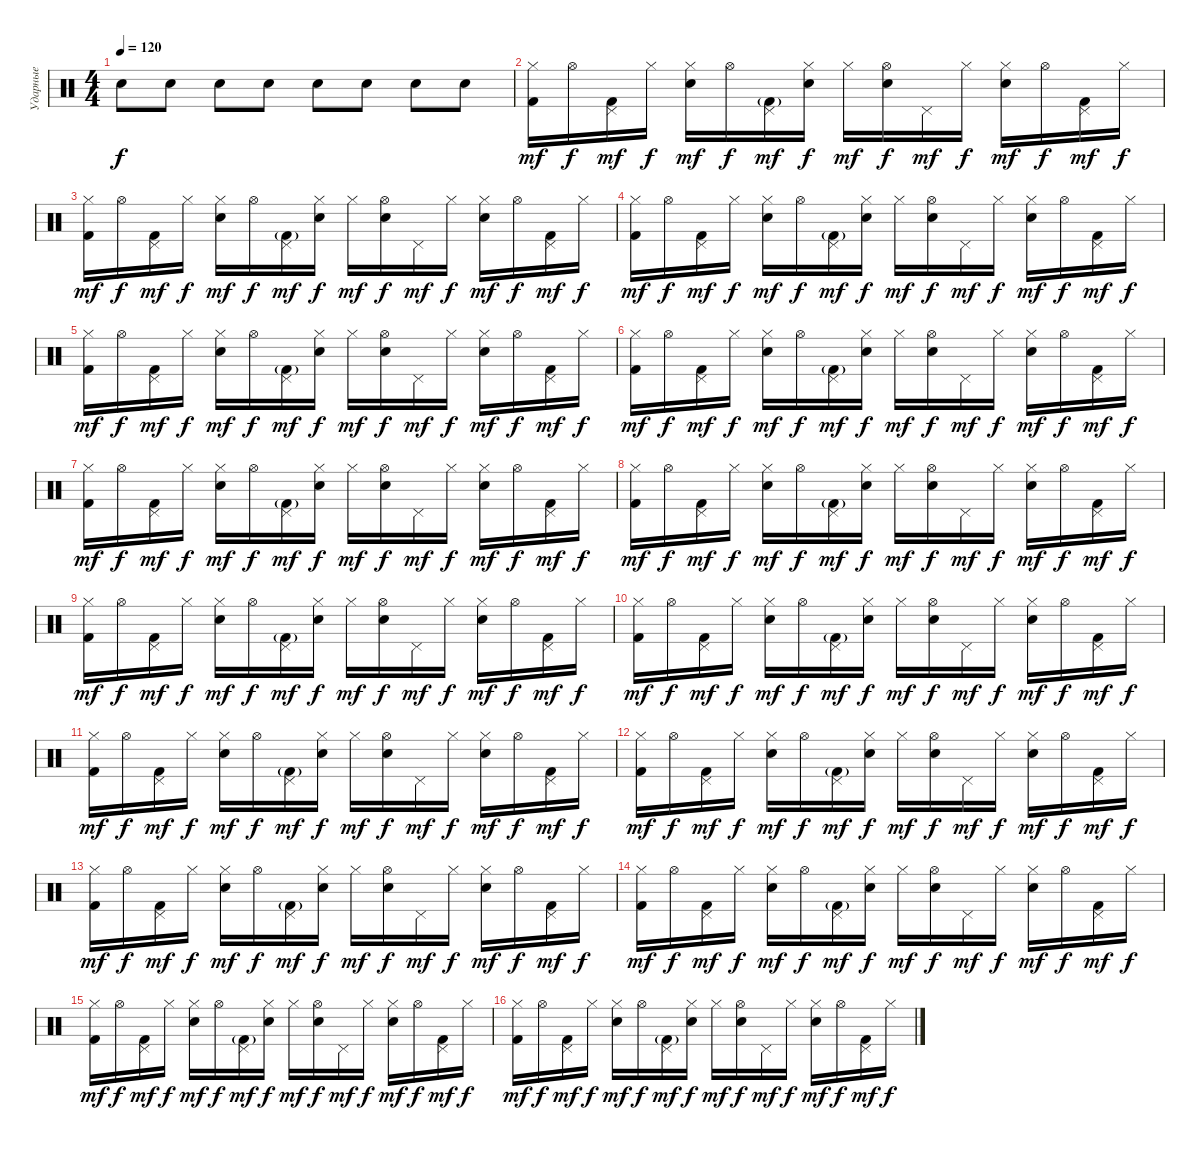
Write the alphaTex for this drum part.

\track ("Ударные" "Ударные") {instrument percussion}
\staff {score}
\articulation defaults
\ts (4 4)
\tempo 120
\clef neutral
\ks c "Snare (hit) 2".8{dy f} "Snare (hit) 2".8 "Snare (hit) 2".8 "Snare (hit) 2".8 "Snare (hit) 2".8 "Snare (hit) 2".8 "Snare (hit) 2".8 "Snare (hit) 2".8
|
("Kick (hit) 2" "Hi-Hat (closed)").16{dy mf} "Hi-Hat (open)".16{dy f} ("Kick (hit) 2" "Pedal Hi-Hat (hit)").16{dy mf} "Hi-Hat (closed)".16{dy f} ("Snare (hit) 2" "Hi-Hat (closed)").16{dy mf} "Hi-Hat (open)".16{dy f} ("Kick (hit) 2"{g} "Pedal Hi-Hat (hit)").16{dy mf} ("Snare (hit) 2" "Hi-Hat (closed)").16{dy f} "Hi-Hat (closed)".16{dy mf} ("Snare (hit) 2" "Hi-Hat (open)").16{dy f} "Pedal Hi-Hat (hit)".16{dy mf} "Hi-Hat (closed)".16{dy f} ("Snare (hit) 2" "Hi-Hat (closed)").16{dy mf} "Hi-Hat (open)".16{dy f} ("Kick (hit) 2" "Pedal Hi-Hat (hit)").16{dy mf} "Hi-Hat (closed)".16{dy f} |
("Kick (hit) 2" "Hi-Hat (closed)").16{dy mf} "Hi-Hat (open)".16{dy f} ("Kick (hit) 2" "Pedal Hi-Hat (hit)").16{dy mf} "Hi-Hat (closed)".16{dy f} ("Snare (hit) 2" "Hi-Hat (closed)").16{dy mf} "Hi-Hat (open)".16{dy f} ("Kick (hit) 2"{g} "Pedal Hi-Hat (hit)").16{dy mf} ("Snare (hit) 2" "Hi-Hat (closed)").16{dy f} "Hi-Hat (closed)".16{dy mf} ("Snare (hit) 2" "Hi-Hat (open)").16{dy f} "Pedal Hi-Hat (hit)".16{dy mf} "Hi-Hat (closed)".16{dy f} ("Snare (hit) 2" "Hi-Hat (closed)").16{dy mf} "Hi-Hat (open)".16{dy f} ("Kick (hit) 2" "Pedal Hi-Hat (hit)").16{dy mf} "Hi-Hat (closed)".16{dy f} |
("Kick (hit) 2" "Hi-Hat (closed)").16{dy mf} "Hi-Hat (open)".16{dy f} ("Kick (hit) 2" "Pedal Hi-Hat (hit)").16{dy mf} "Hi-Hat (closed)".16{dy f} ("Snare (hit) 2" "Hi-Hat (closed)").16{dy mf} "Hi-Hat (open)".16{dy f} ("Kick (hit) 2"{g} "Pedal Hi-Hat (hit)").16{dy mf} ("Snare (hit) 2" "Hi-Hat (closed)").16{dy f} "Hi-Hat (closed)".16{dy mf} ("Snare (hit) 2" "Hi-Hat (open)").16{dy f} "Pedal Hi-Hat (hit)".16{dy mf} "Hi-Hat (closed)".16{dy f} ("Snare (hit) 2" "Hi-Hat (closed)").16{dy mf} "Hi-Hat (open)".16{dy f} ("Kick (hit) 2" "Pedal Hi-Hat (hit)").16{dy mf} "Hi-Hat (closed)".16{dy f} |
("Kick (hit) 2" "Hi-Hat (closed)").16{dy mf} "Hi-Hat (open)".16{dy f} ("Kick (hit) 2" "Pedal Hi-Hat (hit)").16{dy mf} "Hi-Hat (closed)".16{dy f} ("Snare (hit) 2" "Hi-Hat (closed)").16{dy mf} "Hi-Hat (open)".16{dy f} ("Kick (hit) 2"{g} "Pedal Hi-Hat (hit)").16{dy mf} ("Snare (hit) 2" "Hi-Hat (closed)").16{dy f} "Hi-Hat (closed)".16{dy mf} ("Snare (hit) 2" "Hi-Hat (open)").16{dy f} "Pedal Hi-Hat (hit)".16{dy mf} "Hi-Hat (closed)".16{dy f} ("Snare (hit) 2" "Hi-Hat (closed)").16{dy mf} "Hi-Hat (open)".16{dy f} ("Kick (hit) 2" "Pedal Hi-Hat (hit)").16{dy mf} "Hi-Hat (closed)".16{dy f} |
("Kick (hit) 2" "Hi-Hat (closed)").16{dy mf} "Hi-Hat (open)".16{dy f} ("Kick (hit) 2" "Pedal Hi-Hat (hit)").16{dy mf} "Hi-Hat (closed)".16{dy f} ("Snare (hit) 2" "Hi-Hat (closed)").16{dy mf} "Hi-Hat (open)".16{dy f} ("Kick (hit) 2"{g} "Pedal Hi-Hat (hit)").16{dy mf} ("Snare (hit) 2" "Hi-Hat (closed)").16{dy f} "Hi-Hat (closed)".16{dy mf} ("Snare (hit) 2" "Hi-Hat (open)").16{dy f} "Pedal Hi-Hat (hit)".16{dy mf} "Hi-Hat (closed)".16{dy f} ("Snare (hit) 2" "Hi-Hat (closed)").16{dy mf} "Hi-Hat (open)".16{dy f} ("Kick (hit) 2" "Pedal Hi-Hat (hit)").16{dy mf} "Hi-Hat (closed)".16{dy f} |
("Kick (hit) 2" "Hi-Hat (closed)").16{dy mf} "Hi-Hat (open)".16{dy f} ("Kick (hit) 2" "Pedal Hi-Hat (hit)").16{dy mf} "Hi-Hat (closed)".16{dy f} ("Snare (hit) 2" "Hi-Hat (closed)").16{dy mf} "Hi-Hat (open)".16{dy f} ("Kick (hit) 2"{g} "Pedal Hi-Hat (hit)").16{dy mf} ("Snare (hit) 2" "Hi-Hat (closed)").16{dy f} "Hi-Hat (closed)".16{dy mf} ("Snare (hit) 2" "Hi-Hat (open)").16{dy f} "Pedal Hi-Hat (hit)".16{dy mf} "Hi-Hat (closed)".16{dy f} ("Snare (hit) 2" "Hi-Hat (closed)").16{dy mf} "Hi-Hat (open)".16{dy f} ("Kick (hit) 2" "Pedal Hi-Hat (hit)").16{dy mf} "Hi-Hat (closed)".16{dy f} |
("Kick (hit) 2" "Hi-Hat (closed)").16{dy mf} "Hi-Hat (open)".16{dy f} ("Kick (hit) 2" "Pedal Hi-Hat (hit)").16{dy mf} "Hi-Hat (closed)".16{dy f} ("Snare (hit) 2" "Hi-Hat (closed)").16{dy mf} "Hi-Hat (open)".16{dy f} ("Kick (hit) 2"{g} "Pedal Hi-Hat (hit)").16{dy mf} ("Snare (hit) 2" "Hi-Hat (closed)").16{dy f} "Hi-Hat (closed)".16{dy mf} ("Snare (hit) 2" "Hi-Hat (open)").16{dy f} "Pedal Hi-Hat (hit)".16{dy mf} "Hi-Hat (closed)".16{dy f} ("Snare (hit) 2" "Hi-Hat (closed)").16{dy mf} "Hi-Hat (open)".16{dy f} ("Kick (hit) 2" "Pedal Hi-Hat (hit)").16{dy mf} "Hi-Hat (closed)".16{dy f} |
("Kick (hit) 2" "Hi-Hat (closed)").16{dy mf} "Hi-Hat (open)".16{dy f} ("Kick (hit) 2" "Pedal Hi-Hat (hit)").16{dy mf} "Hi-Hat (closed)".16{dy f} ("Snare (hit) 2" "Hi-Hat (closed)").16{dy mf} "Hi-Hat (open)".16{dy f} ("Kick (hit) 2"{g} "Pedal Hi-Hat (hit)").16{dy mf} ("Snare (hit) 2" "Hi-Hat (closed)").16{dy f} "Hi-Hat (closed)".16{dy mf} ("Snare (hit) 2" "Hi-Hat (open)").16{dy f} "Pedal Hi-Hat (hit)".16{dy mf} "Hi-Hat (closed)".16{dy f} ("Snare (hit) 2" "Hi-Hat (closed)").16{dy mf} "Hi-Hat (open)".16{dy f} ("Kick (hit) 2" "Pedal Hi-Hat (hit)").16{dy mf} "Hi-Hat (closed)".16{dy f} |
("Kick (hit) 2" "Hi-Hat (closed)").16{dy mf} "Hi-Hat (open)".16{dy f} ("Kick (hit) 2" "Pedal Hi-Hat (hit)").16{dy mf} "Hi-Hat (closed)".16{dy f} ("Snare (hit) 2" "Hi-Hat (closed)").16{dy mf} "Hi-Hat (open)".16{dy f} ("Kick (hit) 2"{g} "Pedal Hi-Hat (hit)").16{dy mf} ("Snare (hit) 2" "Hi-Hat (closed)").16{dy f} "Hi-Hat (closed)".16{dy mf} ("Snare (hit) 2" "Hi-Hat (open)").16{dy f} "Pedal Hi-Hat (hit)".16{dy mf} "Hi-Hat (closed)".16{dy f} ("Snare (hit) 2" "Hi-Hat (closed)").16{dy mf} "Hi-Hat (open)".16{dy f} ("Kick (hit) 2" "Pedal Hi-Hat (hit)").16{dy mf} "Hi-Hat (closed)".16{dy f} |
("Kick (hit) 2" "Hi-Hat (closed)").16{dy mf} "Hi-Hat (open)".16{dy f} ("Kick (hit) 2" "Pedal Hi-Hat (hit)").16{dy mf} "Hi-Hat (closed)".16{dy f} ("Snare (hit) 2" "Hi-Hat (closed)").16{dy mf} "Hi-Hat (open)".16{dy f} ("Kick (hit) 2"{g} "Pedal Hi-Hat (hit)").16{dy mf} ("Snare (hit) 2" "Hi-Hat (closed)").16{dy f} "Hi-Hat (closed)".16{dy mf} ("Snare (hit) 2" "Hi-Hat (open)").16{dy f} "Pedal Hi-Hat (hit)".16{dy mf} "Hi-Hat (closed)".16{dy f} ("Snare (hit) 2" "Hi-Hat (closed)").16{dy mf} "Hi-Hat (open)".16{dy f} ("Kick (hit) 2" "Pedal Hi-Hat (hit)").16{dy mf} "Hi-Hat (closed)".16{dy f} |
("Kick (hit) 2" "Hi-Hat (closed)").16{dy mf} "Hi-Hat (open)".16{dy f} ("Kick (hit) 2" "Pedal Hi-Hat (hit)").16{dy mf} "Hi-Hat (closed)".16{dy f} ("Snare (hit) 2" "Hi-Hat (closed)").16{dy mf} "Hi-Hat (open)".16{dy f} ("Kick (hit) 2"{g} "Pedal Hi-Hat (hit)").16{dy mf} ("Snare (hit) 2" "Hi-Hat (closed)").16{dy f} "Hi-Hat (closed)".16{dy mf} ("Snare (hit) 2" "Hi-Hat (open)").16{dy f} "Pedal Hi-Hat (hit)".16{dy mf} "Hi-Hat (closed)".16{dy f} ("Snare (hit) 2" "Hi-Hat (closed)").16{dy mf} "Hi-Hat (open)".16{dy f} ("Kick (hit) 2" "Pedal Hi-Hat (hit)").16{dy mf} "Hi-Hat (closed)".16{dy f} |
("Kick (hit) 2" "Hi-Hat (closed)").16{dy mf} "Hi-Hat (open)".16{dy f} ("Kick (hit) 2" "Pedal Hi-Hat (hit)").16{dy mf} "Hi-Hat (closed)".16{dy f} ("Snare (hit) 2" "Hi-Hat (closed)").16{dy mf} "Hi-Hat (open)".16{dy f} ("Kick (hit) 2"{g} "Pedal Hi-Hat (hit)").16{dy mf} ("Snare (hit) 2" "Hi-Hat (closed)").16{dy f} "Hi-Hat (closed)".16{dy mf} ("Snare (hit) 2" "Hi-Hat (open)").16{dy f} "Pedal Hi-Hat (hit)".16{dy mf} "Hi-Hat (closed)".16{dy f} ("Snare (hit) 2" "Hi-Hat (closed)").16{dy mf} "Hi-Hat (open)".16{dy f} ("Kick (hit) 2" "Pedal Hi-Hat (hit)").16{dy mf} "Hi-Hat (closed)".16{dy f} |
("Kick (hit) 2" "Hi-Hat (closed)").16{dy mf} "Hi-Hat (open)".16{dy f} ("Kick (hit) 2" "Pedal Hi-Hat (hit)").16{dy mf} "Hi-Hat (closed)".16{dy f} ("Snare (hit) 2" "Hi-Hat (closed)").16{dy mf} "Hi-Hat (open)".16{dy f} ("Kick (hit) 2"{g} "Pedal Hi-Hat (hit)").16{dy mf} ("Snare (hit) 2" "Hi-Hat (closed)").16{dy f} "Hi-Hat (closed)".16{dy mf} ("Snare (hit) 2" "Hi-Hat (open)").16{dy f} "Pedal Hi-Hat (hit)".16{dy mf} "Hi-Hat (closed)".16{dy f} ("Snare (hit) 2" "Hi-Hat (closed)").16{dy mf} "Hi-Hat (open)".16{dy f} ("Kick (hit) 2" "Pedal Hi-Hat (hit)").16{dy mf} "Hi-Hat (closed)".16{dy f} |
("Kick (hit) 2" "Hi-Hat (closed)").16{dy mf} "Hi-Hat (open)".16{dy f} ("Kick (hit) 2" "Pedal Hi-Hat (hit)").16{dy mf} "Hi-Hat (closed)".16{dy f} ("Snare (hit) 2" "Hi-Hat (closed)").16{dy mf} "Hi-Hat (open)".16{dy f} ("Kick (hit) 2"{g} "Pedal Hi-Hat (hit)").16{dy mf} ("Snare (hit) 2" "Hi-Hat (closed)").16{dy f} "Hi-Hat (closed)".16{dy mf} ("Snare (hit) 2" "Hi-Hat (open)").16{dy f} "Pedal Hi-Hat (hit)".16{dy mf} "Hi-Hat (closed)".16{dy f} ("Snare (hit) 2" "Hi-Hat (closed)").16{dy mf} "Hi-Hat (open)".16{dy f} ("Kick (hit) 2" "Pedal Hi-Hat (hit)").16{dy mf} "Hi-Hat (closed)".16{dy f} |
("Kick (hit) 2" "Hi-Hat (closed)").16{dy mf} "Hi-Hat (open)".16{dy f} ("Kick (hit) 2" "Pedal Hi-Hat (hit)").16{dy mf} "Hi-Hat (closed)".16{dy f} ("Snare (hit) 2" "Hi-Hat (closed)").16{dy mf} "Hi-Hat (open)".16{dy f} ("Kick (hit) 2"{g} "Pedal Hi-Hat (hit)").16{dy mf} ("Snare (hit) 2" "Hi-Hat (closed)").16{dy f} "Hi-Hat (closed)".16{dy mf} ("Snare (hit) 2" "Hi-Hat (open)").16{dy f} "Pedal Hi-Hat (hit)".16{dy mf} "Hi-Hat (closed)".16{dy f} ("Snare (hit) 2" "Hi-Hat (closed)").16{dy mf} "Hi-Hat (open)".16{dy f} ("Kick (hit) 2" "Pedal Hi-Hat (hit)").16{dy mf} "Hi-Hat (closed)".16{dy f}
